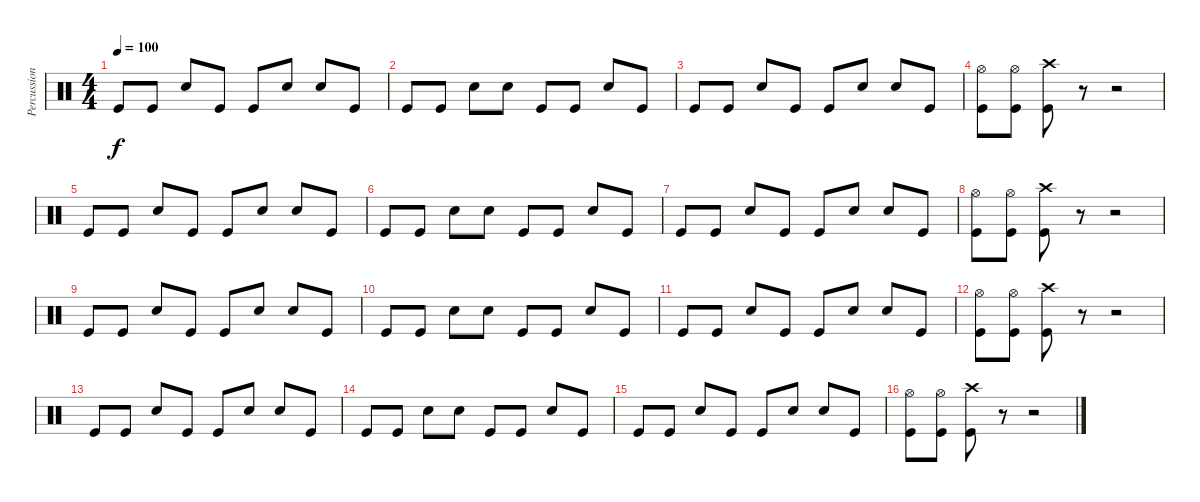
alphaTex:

\track ("Percussion" "Percussion") {instrument percussion}
\staff {score}
\articulation defaults
\ts (4 4)
\tempo 100
\clef neutral
\ks c "Kick (hit)".8{dy f} "Kick (hit)".8 "Snare (hit) 2".8 "Kick (hit)".8 "Kick (hit)".8 "Snare (hit) 2".8 "Snare (hit) 2".8 "Kick (hit)".8
|
"Kick (hit)".8 "Kick (hit)".8 "Snare (hit) 2".8 "Snare (hit) 2".8 "Kick (hit)".8 "Kick (hit)".8 "Snare (hit) 2".8 "Kick (hit)".8 |
"Kick (hit)".8 "Kick (hit)".8 "Snare (hit) 2".8 "Kick (hit)".8 "Kick (hit)".8 "Snare (hit) 2".8 "Snare (hit) 2".8 "Kick (hit)".8 |
("Hi-Hat (open)" "Kick (hit)").8 ("Hi-Hat (open)" "Kick (hit)").8 ("Crash high (hit)" "Kick (hit)").8 r.8 r.2 |
"Kick (hit)".8 "Kick (hit)".8 "Snare (hit) 2".8 "Kick (hit)".8 "Kick (hit)".8 "Snare (hit) 2".8 "Snare (hit) 2".8 "Kick (hit)".8 |
"Kick (hit)".8 "Kick (hit)".8 "Snare (hit) 2".8 "Snare (hit) 2".8 "Kick (hit)".8 "Kick (hit)".8 "Snare (hit) 2".8 "Kick (hit)".8 |
"Kick (hit)".8 "Kick (hit)".8 "Snare (hit) 2".8 "Kick (hit)".8 "Kick (hit)".8 "Snare (hit) 2".8 "Snare (hit) 2".8 "Kick (hit)".8 |
("Hi-Hat (open)" "Kick (hit)").8 ("Hi-Hat (open)" "Kick (hit)").8 ("Crash high (hit)" "Kick (hit)").8 r.8 r.2 |
"Kick (hit)".8 "Kick (hit)".8 "Snare (hit) 2".8 "Kick (hit)".8 "Kick (hit)".8 "Snare (hit) 2".8 "Snare (hit) 2".8 "Kick (hit)".8 |
"Kick (hit)".8 "Kick (hit)".8 "Snare (hit) 2".8 "Snare (hit) 2".8 "Kick (hit)".8 "Kick (hit)".8 "Snare (hit) 2".8 "Kick (hit)".8 |
"Kick (hit)".8 "Kick (hit)".8 "Snare (hit) 2".8 "Kick (hit)".8 "Kick (hit)".8 "Snare (hit) 2".8 "Snare (hit) 2".8 "Kick (hit)".8 |
("Hi-Hat (open)" "Kick (hit)").8 ("Hi-Hat (open)" "Kick (hit)").8 ("Crash high (hit)" "Kick (hit)").8 r.8 r.2 |
"Kick (hit)".8 "Kick (hit)".8 "Snare (hit) 2".8 "Kick (hit)".8 "Kick (hit)".8 "Snare (hit) 2".8 "Snare (hit) 2".8 "Kick (hit)".8 |
"Kick (hit)".8 "Kick (hit)".8 "Snare (hit) 2".8 "Snare (hit) 2".8 "Kick (hit)".8 "Kick (hit)".8 "Snare (hit) 2".8 "Kick (hit)".8 |
"Kick (hit)".8 "Kick (hit)".8 "Snare (hit) 2".8 "Kick (hit)".8 "Kick (hit)".8 "Snare (hit) 2".8 "Snare (hit) 2".8 "Kick (hit)".8 |
("Hi-Hat (open)" "Kick (hit)").8 ("Hi-Hat (open)" "Kick (hit)").8 ("Crash high (hit)" "Kick (hit)").8 r.8 r.2
